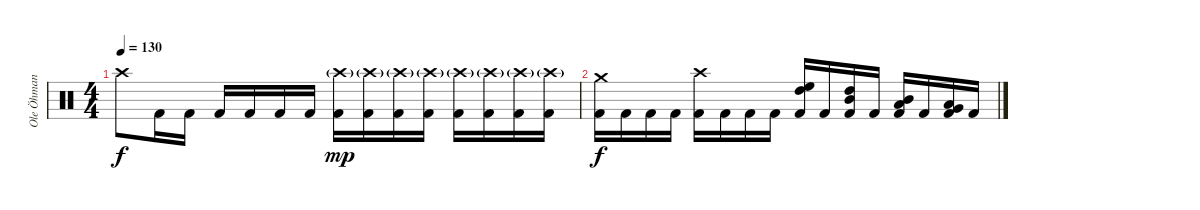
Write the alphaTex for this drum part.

\track ("Ole Öhman" "Ole Öhman") {instrument percussion}
\staff {score}
\articulation defaults
\ts (4 4)
\tempo 130
\clef neutral
\ks c "Crash high (hit)".8{dy f} "Kick (hit) 2".16 "Kick (hit) 2".16 "Kick (hit) 2".16 "Kick (hit) 2".16 "Kick (hit) 2".16 "Kick (hit) 2".16
("Crash high (hit)"{g} "Kick (hit) 2").16{dy mp} ("Crash high (hit)"{g} "Kick (hit) 2").16 ("Crash high (hit)"{g} "Kick (hit) 2").16 ("Crash high (hit)"{g} "Kick (hit) 2").16 ("Crash high (hit)"{g} "Kick (hit) 2").16 ("Crash high (hit)"{g} "Kick (hit) 2").16 ("Crash high (hit)"{g} "Kick (hit) 2").16 ("Crash high (hit)"{g} "Kick (hit) 2").16 |
("Crash medium (hit)" "Kick (hit) 2").16{dy f} "Kick (hit) 2".16 "Kick (hit) 2".16 "Kick (hit) 2".16 ("Crash high (hit)" "Kick (hit) 2").16 "Kick (hit) 2".16 "Kick (hit) 2".16 "Kick (hit) 2".16 ("High Floor Tom (hit)" "High Tom (hit)" "Kick (hit) 2").16 "Kick (hit) 2".16 ("High Tom (hit)" "Mid Tom (hit)" "Kick (hit) 2").16 "Kick (hit) 2".16 ("Mid Tom (hit)" "Low Tom (hit)" "Kick (hit) 2").16 "Kick (hit) 2".16 ("Low Tom (hit)" "Very Low Tom (hit)" "Kick (hit) 2").16 "Kick (hit) 2".16
